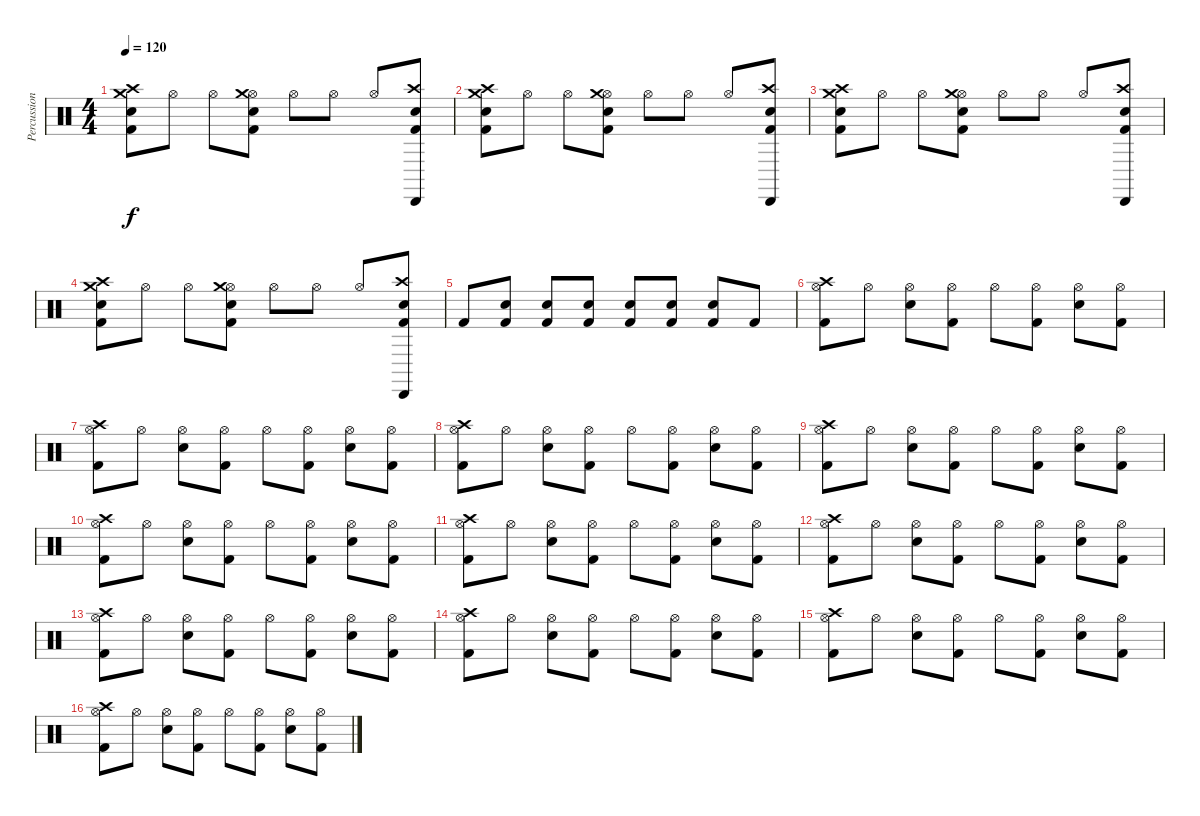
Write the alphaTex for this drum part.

\track ("Percussion" "Percussion") {instrument percussion}
\staff {score}
\articulation defaults
\ts (4 4)
\tempo 120
\clef neutral
\ks c
("Kick (hit) 2" "Crash high (hit)" "Crash medium (hit)" "Electric Snare (hit)").8{dy f} "Hi-Hat (open)".8 "Hi-Hat (open)".8 ("Kick (hit) 2" "Hi-Hat (open)" "Crash medium (hit)" "Electric Snare (hit)").8 "Hi-Hat (open)".8 "Hi-Hat (open)".8 "Hi-Hat (open)".8 ("Kick (hit) 2" "Crash high (hit)" "Cabasa (hit)" "Electric Snare (hit)").8 |
("Kick (hit) 2" "Crash high (hit)" "Crash medium (hit)" "Electric Snare (hit)").8 "Hi-Hat (open)".8 "Hi-Hat (open)".8 ("Kick (hit) 2" "Hi-Hat (open)" "Crash medium (hit)" "Electric Snare (hit)").8 "Hi-Hat (open)".8 "Hi-Hat (open)".8 "Hi-Hat (open)".8 ("Kick (hit) 2" "Crash high (hit)" "Cabasa (hit)" "Electric Snare (hit)").8 |
("Kick (hit) 2" "Crash high (hit)" "Crash medium (hit)" "Electric Snare (hit)").8 "Hi-Hat (open)".8 "Hi-Hat (open)".8 ("Kick (hit) 2" "Hi-Hat (open)" "Crash medium (hit)" "Electric Snare (hit)").8 "Hi-Hat (open)".8 "Hi-Hat (open)".8 "Hi-Hat (open)".8 ("Kick (hit) 2" "Crash high (hit)" "Cabasa (hit)" "Electric Snare (hit)").8 |
("Kick (hit) 2" "Crash high (hit)" "Crash medium (hit)" "Electric Snare (hit)").8 "Hi-Hat (open)".8 "Hi-Hat (open)".8 ("Kick (hit) 2" "Hi-Hat (open)" "Crash medium (hit)" "Electric Snare (hit)").8 "Hi-Hat (open)".8 "Hi-Hat (open)".8 "Hi-Hat (open)".8 ("Kick (hit) 2" "Crash high (hit)" "Cabasa (hit)" "Electric Snare (hit)").8 |
"Kick (hit) 2".8 ("Electric Snare (hit)" "Kick (hit) 2").8 ("Electric Snare (hit)" "Kick (hit) 2").8 ("Kick (hit) 2" "Electric Snare (hit)").8 ("Electric Snare (hit)" "Kick (hit) 2").8 ("Electric Snare (hit)" "Kick (hit) 2").8 ("Kick (hit) 2" "Electric Snare (hit)").8 "Kick (hit) 2".8 |
("Kick (hit) 2" "Hi-Hat (open)" "Crash high (hit)").8 "Hi-Hat (open)".8 ("Electric Snare (hit)" "Hi-Hat (open)").8 ("Kick (hit) 2" "Hi-Hat (open)").8 "Hi-Hat (open)".8 ("Kick (hit) 2" "Hi-Hat (open)").8 ("Electric Snare (hit)" "Hi-Hat (open)").8 ("Kick (hit) 2" "Hi-Hat (open)").8 |
("Kick (hit) 2" "Hi-Hat (open)" "Crash high (hit)").8 "Hi-Hat (open)".8 ("Electric Snare (hit)" "Hi-Hat (open)").8 ("Kick (hit) 2" "Hi-Hat (open)").8 "Hi-Hat (open)".8 ("Kick (hit) 2" "Hi-Hat (open)").8 ("Electric Snare (hit)" "Hi-Hat (open)").8 ("Kick (hit) 2" "Hi-Hat (open)").8 |
("Kick (hit) 2" "Hi-Hat (open)" "Crash high (hit)").8 "Hi-Hat (open)".8 ("Electric Snare (hit)" "Hi-Hat (open)").8 ("Kick (hit) 2" "Hi-Hat (open)").8 "Hi-Hat (open)".8 ("Kick (hit) 2" "Hi-Hat (open)").8 ("Electric Snare (hit)" "Hi-Hat (open)").8 ("Kick (hit) 2" "Hi-Hat (open)").8 |
("Kick (hit) 2" "Hi-Hat (open)" "Crash high (hit)").8 "Hi-Hat (open)".8 ("Electric Snare (hit)" "Hi-Hat (open)").8 ("Kick (hit) 2" "Hi-Hat (open)").8 "Hi-Hat (open)".8 ("Kick (hit) 2" "Hi-Hat (open)").8 ("Electric Snare (hit)" "Hi-Hat (open)").8 ("Kick (hit) 2" "Hi-Hat (open)").8 |
("Kick (hit) 2" "Hi-Hat (open)" "Crash high (hit)").8 "Hi-Hat (open)".8 ("Electric Snare (hit)" "Hi-Hat (open)").8 ("Kick (hit) 2" "Hi-Hat (open)").8 "Hi-Hat (open)".8 ("Kick (hit) 2" "Hi-Hat (open)").8 ("Electric Snare (hit)" "Hi-Hat (open)").8 ("Kick (hit) 2" "Hi-Hat (open)").8 |
("Kick (hit) 2" "Hi-Hat (open)" "Crash high (hit)").8 "Hi-Hat (open)".8 ("Electric Snare (hit)" "Hi-Hat (open)").8 ("Kick (hit) 2" "Hi-Hat (open)").8 "Hi-Hat (open)".8 ("Kick (hit) 2" "Hi-Hat (open)").8 ("Electric Snare (hit)" "Hi-Hat (open)").8 ("Kick (hit) 2" "Hi-Hat (open)").8 |
("Kick (hit) 2" "Hi-Hat (open)" "Crash high (hit)").8 "Hi-Hat (open)".8 ("Electric Snare (hit)" "Hi-Hat (open)").8 ("Kick (hit) 2" "Hi-Hat (open)").8 "Hi-Hat (open)".8 ("Kick (hit) 2" "Hi-Hat (open)").8 ("Electric Snare (hit)" "Hi-Hat (open)").8 ("Kick (hit) 2" "Hi-Hat (open)").8 |
("Kick (hit) 2" "Hi-Hat (open)" "Crash high (hit)").8 "Hi-Hat (open)".8 ("Electric Snare (hit)" "Hi-Hat (open)").8 ("Kick (hit) 2" "Hi-Hat (open)").8 "Hi-Hat (open)".8 ("Kick (hit) 2" "Hi-Hat (open)").8 ("Electric Snare (hit)" "Hi-Hat (open)").8 ("Kick (hit) 2" "Hi-Hat (open)").8 |
("Kick (hit) 2" "Hi-Hat (open)" "Crash high (hit)").8 "Hi-Hat (open)".8 ("Electric Snare (hit)" "Hi-Hat (open)").8 ("Kick (hit) 2" "Hi-Hat (open)").8 "Hi-Hat (open)".8 ("Kick (hit) 2" "Hi-Hat (open)").8 ("Electric Snare (hit)" "Hi-Hat (open)").8 ("Kick (hit) 2" "Hi-Hat (open)").8 |
("Kick (hit) 2" "Hi-Hat (open)" "Crash high (hit)").8 "Hi-Hat (open)".8 ("Electric Snare (hit)" "Hi-Hat (open)").8 ("Kick (hit) 2" "Hi-Hat (open)").8 "Hi-Hat (open)".8 ("Kick (hit) 2" "Hi-Hat (open)").8 ("Electric Snare (hit)" "Hi-Hat (open)").8 ("Kick (hit) 2" "Hi-Hat (open)").8 |
("Kick (hit) 2" "Hi-Hat (open)" "Crash high (hit)").8 "Hi-Hat (open)".8 ("Electric Snare (hit)" "Hi-Hat (open)").8 ("Kick (hit) 2" "Hi-Hat (open)").8 "Hi-Hat (open)".8 ("Kick (hit) 2" "Hi-Hat (open)").8 ("Electric Snare (hit)" "Hi-Hat (open)").8 ("Kick (hit) 2" "Hi-Hat (open)").8
